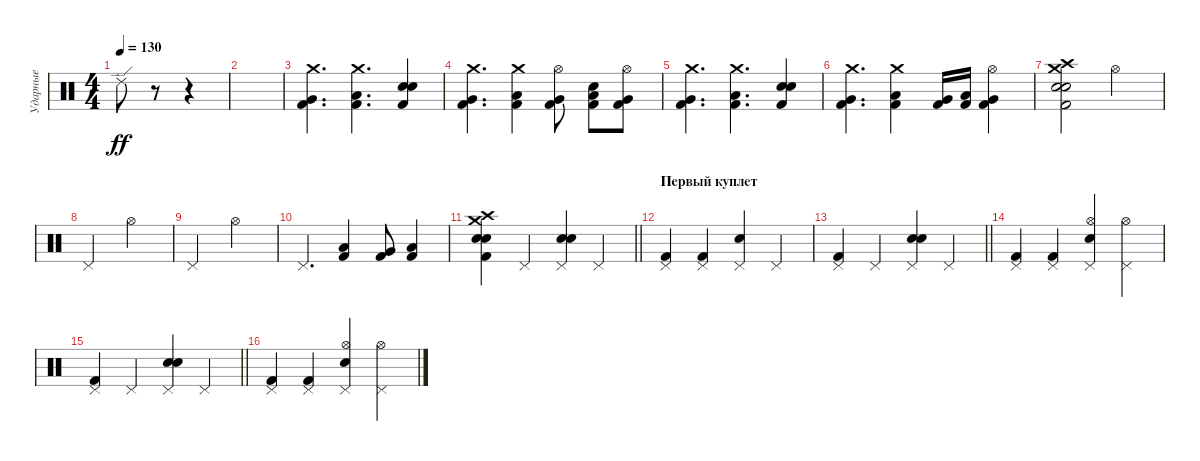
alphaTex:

\track ("Ударные" "Ударные") {instrument percussion}
\staff {score}
\articulation defaults
\ts (4 4)
\tempo 130
\clef neutral
\ks c "Ride (edge) 2".8{dy ff}
r.8 r.4 |
|
("Crash medium (hit)" "Very Low Tom (hit)" "Kick (hit) 2").4{d} ("Crash medium (hit)" "Low Floor Tom (hit)" "Kick (hit) 2").4{d} ("Snare (hit) 2" "Electric Snare (hit)" "Kick (hit) 2").4 |
("Crash medium (hit)" "Very Low Tom (hit)" "Kick (hit) 2").4{d} ("Crash medium (hit)" "Low Floor Tom (hit)" "Kick (hit) 2").4 ("Hi-Hat (open)" "Kick (hit) 2" "Very Low Tom (hit)").8 ("Electric Snare (hit)" "Kick (hit) 2" "Low Floor Tom (hit)").8 ("Hi-Hat (open)" "Kick (hit) 2" "Very Low Tom (hit)").8 |
("Crash medium (hit)" "Very Low Tom (hit)" "Kick (hit) 2").4{d} ("Crash medium (hit)" "Low Floor Tom (hit)" "Kick (hit) 2").4{d} ("Snare (hit) 2" "Electric Snare (hit)" "Kick (hit) 2").4 |
("Crash medium (hit)" "Very Low Tom (hit)" "Kick (hit) 2").4{d} ("Crash medium (hit)" "Low Floor Tom (hit)" "Kick (hit) 2").4 ("Kick (hit) 2" "Very Low Tom (hit)").16 ("Kick (hit) 2" "Low Floor Tom (hit)").16 ("Hi-Hat (open)" "Kick (hit) 2" "Very Low Tom (hit)").4 |
("Crash high (hit)" "Kick (hit) 2" "Electric Snare (hit)" "Snare (hit) 2" "Crash medium (hit)").2 "Hi-Hat (open)".2 |
"Pedal Hi-Hat (hit)".2 "Hi-Hat (open)".2 |
"Pedal Hi-Hat (hit)".2 "Hi-Hat (open)".2 |
"Pedal Hi-Hat (hit)".4{d} ("Low Tom (hit)" "Kick (hit) 2").4 ("Very Low Tom (hit)" "Kick (hit) 2").8 ("Low Floor Tom (hit)" "Kick (hit) 2").4 |
\barLineRight lightlight
("Crash high (hit)" "Kick (hit) 2" "Electric Snare (hit)" "Snare (hit) 2" "Crash medium (hit)").4 "Pedal Hi-Hat (hit)".4 ("Pedal Hi-Hat (hit)" "Snare (hit) 2" "Electric Snare (hit)").4 "Pedal Hi-Hat (hit)".4 |
\section ("" "Первый куплет")
("Kick (hit) 2" "Pedal Hi-Hat (hit)").4 ("Kick (hit) 2" "Pedal Hi-Hat (hit)").4 ("Pedal Hi-Hat (hit)" "Electric Snare (hit)").4 "Pedal Hi-Hat (hit)".4 |
\barLineRight lightlight
("Kick (hit) 2" "Pedal Hi-Hat (hit)").4 "Pedal Hi-Hat (hit)".4 ("Pedal Hi-Hat (hit)" "Snare (hit) 2" "Electric Snare (hit)").4 "Pedal Hi-Hat (hit)".4 |
("Kick (hit) 2" "Pedal Hi-Hat (hit)").4 ("Kick (hit) 2" "Pedal Hi-Hat (hit)").4 ("Pedal Hi-Hat (hit)" "Electric Snare (hit)" "Hi-Hat (open)").4 ("Pedal Hi-Hat (hit)" "Hi-Hat (open)").4 |
\barLineRight lightlight
("Kick (hit) 2" "Pedal Hi-Hat (hit)").4 "Pedal Hi-Hat (hit)".4 ("Pedal Hi-Hat (hit)" "Snare (hit) 2" "Electric Snare (hit)").4 "Pedal Hi-Hat (hit)".4 |
("Kick (hit) 2" "Pedal Hi-Hat (hit)").4 ("Kick (hit) 2" "Pedal Hi-Hat (hit)").4 ("Pedal Hi-Hat (hit)" "Electric Snare (hit)" "Hi-Hat (open)").4 ("Pedal Hi-Hat (hit)" "Hi-Hat (open)").4
